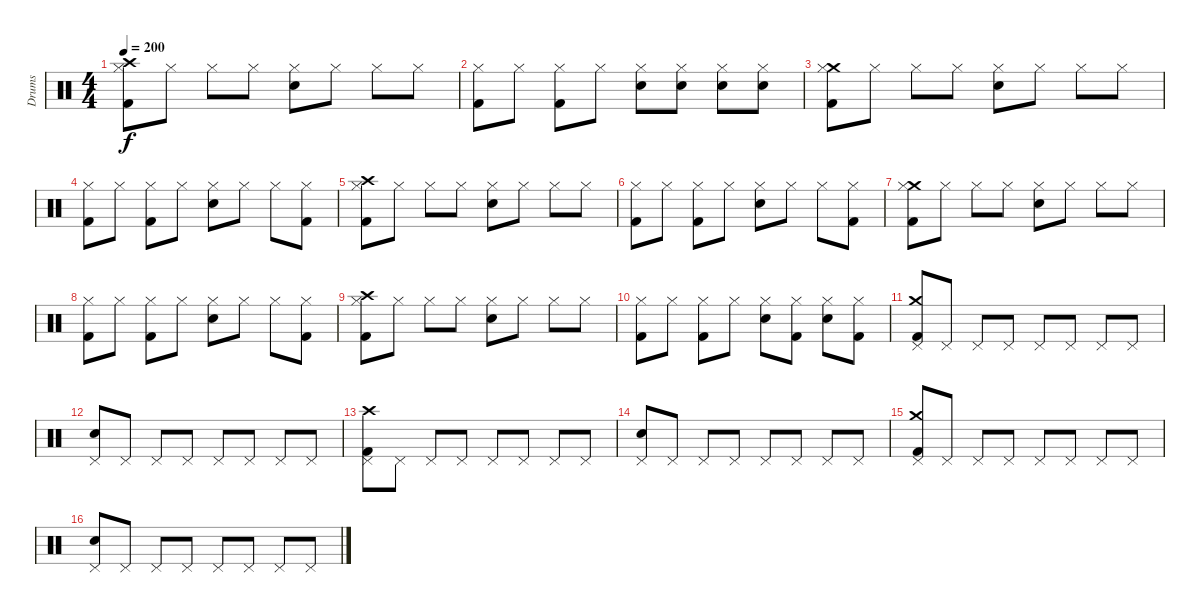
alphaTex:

\track ("Drums" "Drums") {instrument percussion}
\staff {score}
\articulation defaults
\ts (4 4)
\tempo 200
\clef neutral
\ks c
("Crash high (hit)" "Hi-Hat (closed)" "Kick (hit) 2").8{dy f} "Hi-Hat (closed)".8 "Hi-Hat (closed)".8 "Hi-Hat (closed)".8 ("Hi-Hat (closed)" "Electric Snare (hit)").8 "Hi-Hat (closed)".8 "Hi-Hat (closed)".8 "Hi-Hat (closed)".8 |
("Hi-Hat (closed)" "Kick (hit) 2").8 "Hi-Hat (closed)".8 ("Hi-Hat (closed)" "Kick (hit) 2").8 "Hi-Hat (closed)".8 ("Hi-Hat (closed)" "Electric Snare (hit)").8 ("Hi-Hat (closed)" "Electric Snare (hit)").8 ("Hi-Hat (closed)" "Electric Snare (hit)").8 ("Hi-Hat (closed)" "Electric Snare (hit)").8 |
("Crash medium (hit)" "Hi-Hat (closed)" "Kick (hit) 2").8 "Hi-Hat (closed)".8 "Hi-Hat (closed)".8 "Hi-Hat (closed)".8 ("Hi-Hat (closed)" "Electric Snare (hit)").8 "Hi-Hat (closed)".8 "Hi-Hat (closed)".8 "Hi-Hat (closed)".8 |
("Hi-Hat (closed)" "Kick (hit) 2").8 "Hi-Hat (closed)".8 ("Hi-Hat (closed)" "Kick (hit) 2").8 "Hi-Hat (closed)".8 ("Hi-Hat (closed)" "Electric Snare (hit)").8 "Hi-Hat (closed)".8 "Hi-Hat (closed)".8 ("Hi-Hat (closed)" "Kick (hit) 2").8 |
("Crash high (hit)" "Hi-Hat (closed)" "Kick (hit) 2").8 "Hi-Hat (closed)".8 "Hi-Hat (closed)".8 "Hi-Hat (closed)".8 ("Hi-Hat (closed)" "Electric Snare (hit)").8 "Hi-Hat (closed)".8 "Hi-Hat (closed)".8 "Hi-Hat (closed)".8 |
("Hi-Hat (closed)" "Kick (hit) 2").8 "Hi-Hat (closed)".8 ("Hi-Hat (closed)" "Kick (hit) 2").8 "Hi-Hat (closed)".8 ("Hi-Hat (closed)" "Electric Snare (hit)").8 "Hi-Hat (closed)".8 "Hi-Hat (closed)".8 ("Hi-Hat (closed)" "Kick (hit) 2").8 |
("Crash medium (hit)" "Hi-Hat (closed)" "Kick (hit) 2").8 "Hi-Hat (closed)".8 "Hi-Hat (closed)".8 "Hi-Hat (closed)".8 ("Hi-Hat (closed)" "Electric Snare (hit)").8 "Hi-Hat (closed)".8 "Hi-Hat (closed)".8 "Hi-Hat (closed)".8 |
("Hi-Hat (closed)" "Kick (hit) 2").8 "Hi-Hat (closed)".8 ("Hi-Hat (closed)" "Kick (hit) 2").8 "Hi-Hat (closed)".8 ("Hi-Hat (closed)" "Electric Snare (hit)").8 "Hi-Hat (closed)".8 "Hi-Hat (closed)".8 ("Hi-Hat (closed)" "Kick (hit) 2").8 |
("Crash high (hit)" "Hi-Hat (closed)" "Kick (hit) 2").8 "Hi-Hat (closed)".8 "Hi-Hat (closed)".8 "Hi-Hat (closed)".8 ("Hi-Hat (closed)" "Electric Snare (hit)").8 "Hi-Hat (closed)".8 "Hi-Hat (closed)".8 "Hi-Hat (closed)".8 |
("Hi-Hat (closed)" "Kick (hit) 2").8 "Hi-Hat (closed)".8 ("Hi-Hat (closed)" "Kick (hit) 2").8 "Hi-Hat (closed)".8 ("Hi-Hat (closed)" "Electric Snare (hit)").8 ("Hi-Hat (closed)" "Kick (hit) 2").8 ("Hi-Hat (closed)" "Electric Snare (hit)").8 ("Hi-Hat (closed)" "Kick (hit) 2").8 |
("Crash medium (hit)" "Pedal Hi-Hat (hit)" "Kick (hit) 2").8 "Pedal Hi-Hat (hit)".8 "Pedal Hi-Hat (hit)".8 "Pedal Hi-Hat (hit)".8 "Pedal Hi-Hat (hit)".8 "Pedal Hi-Hat (hit)".8 "Pedal Hi-Hat (hit)".8 "Pedal Hi-Hat (hit)".8 |
("Pedal Hi-Hat (hit)" "Electric Snare (hit)").8 "Pedal Hi-Hat (hit)".8 "Pedal Hi-Hat (hit)".8 "Pedal Hi-Hat (hit)".8 "Pedal Hi-Hat (hit)".8 "Pedal Hi-Hat (hit)".8 "Pedal Hi-Hat (hit)".8 "Pedal Hi-Hat (hit)".8 |
("Crash high (hit)" "Pedal Hi-Hat (hit)" "Kick (hit) 2").8 "Pedal Hi-Hat (hit)".8 "Pedal Hi-Hat (hit)".8 "Pedal Hi-Hat (hit)".8 "Pedal Hi-Hat (hit)".8 "Pedal Hi-Hat (hit)".8 "Pedal Hi-Hat (hit)".8 "Pedal Hi-Hat (hit)".8 |
("Pedal Hi-Hat (hit)" "Electric Snare (hit)").8 "Pedal Hi-Hat (hit)".8 "Pedal Hi-Hat (hit)".8 "Pedal Hi-Hat (hit)".8 "Pedal Hi-Hat (hit)".8 "Pedal Hi-Hat (hit)".8 "Pedal Hi-Hat (hit)".8 "Pedal Hi-Hat (hit)".8 |
("Crash medium (hit)" "Pedal Hi-Hat (hit)" "Kick (hit) 2").8 "Pedal Hi-Hat (hit)".8 "Pedal Hi-Hat (hit)".8 "Pedal Hi-Hat (hit)".8 "Pedal Hi-Hat (hit)".8 "Pedal Hi-Hat (hit)".8 "Pedal Hi-Hat (hit)".8 "Pedal Hi-Hat (hit)".8 |
("Pedal Hi-Hat (hit)" "Electric Snare (hit)").8 "Pedal Hi-Hat (hit)".8 "Pedal Hi-Hat (hit)".8 "Pedal Hi-Hat (hit)".8 "Pedal Hi-Hat (hit)".8 "Pedal Hi-Hat (hit)".8 "Pedal Hi-Hat (hit)".8 "Pedal Hi-Hat (hit)".8
